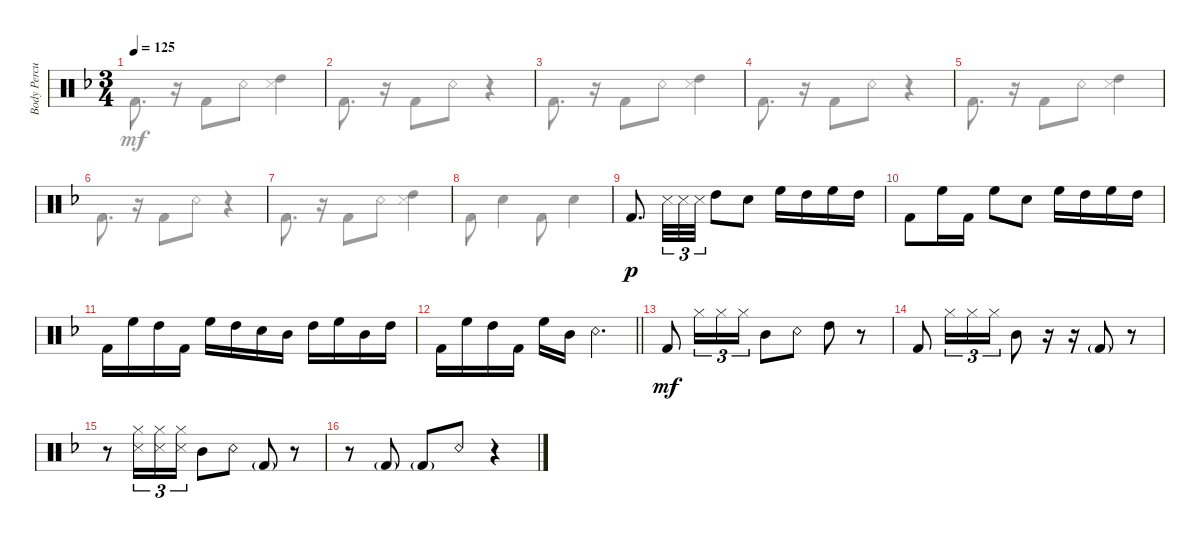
\track ("Body Percussion" "Body Percu") {instrument percussion}
\staff {score}
\articulation defaults
\voice
\ts (3 4)
\tempo 125
\clef neutral
\ks dminor
|
|
|
|
|
|
|
|
"Kick (hit) 2".8{d dy p} "Snare (side stick) 3".32{tu (3 2)} "Snare (side stick) 3".32{tu (3 2)} "Snare (side stick) 3".32{tu (3 2)} "High Tom (hit)".8 "Snare (hit) 2".8 "High Floor Tom (hit)".16 "High Tom (hit)".16 "High Floor Tom (hit)".16 "High Tom (hit)".16 |
"Kick (hit) 2".8 "High Floor Tom (hit)".16 "Kick (hit) 2".16 "High Floor Tom (hit)".8 "Snare (hit) 2".8 "High Floor Tom (hit)".16 "High Tom (hit)".16 "High Floor Tom (hit)".16 "High Tom (hit)".16 |
"Kick (hit) 2".16 "High Floor Tom (hit)".16 "High Tom (hit)".16 "Kick (hit) 2".16 "High Floor Tom (hit)".16 "High Tom (hit)".16 "Snare (hit) 2".16 "Mid Tom (hit)".16 "High Tom (hit)".16 "High Floor Tom (hit)".16 "Mid Tom (hit)".16 "High Tom (hit)".16 |
\barLineRight lightlight "Kick (hit) 2".16 "High Floor Tom (hit)".16 "High Tom (hit)".16 "Kick (hit) 2".16 "High Floor Tom (hit)".16 "Mid Tom (hit)".16 "Snare (rim shot)".4{d}
|
"Kick (hit) 2".8{dy mf} "Hi-Hat (closed)".16{tu (3 2)} "Hi-Hat (closed)".16{tu (3 2)} "Hi-Hat (closed)".16{tu (3 2)} "Mid Tom (hit)".8 "Snare (rim shot)".8 "High Tom (hit)".8 r.8 |
"Kick (hit) 2".8 "Hi-Hat (closed)".16{tu (3 2)} "Hi-Hat (closed)".16{tu (3 2)} "Hi-Hat (closed)".16{tu (3 2)} "Mid Tom (hit)".8 r.16 r.16 "Kick (hit) 2"{g}.8 r.8 |
r.8 ("Hi-Hat (closed)" "Snare (side stick) 3").16{tu (3 2)} ("Hi-Hat (closed)" "Snare (side stick) 3").16{tu (3 2)} ("Hi-Hat (closed)" "Snare (side stick) 3").16{tu (3 2)} "Mid Tom (hit)".8 "Snare (rim shot)".8 "Kick (hit) 2"{g}.8 r.8 |
r.8 "Kick (hit) 2"{g}.8 "Kick (hit) 2"{g}.8 "Snare (rim shot)".8 r.4
\voice
\clef neutral
\ottava regular
\simile none
\ks dminor "Kick (hit) 2".8{d dy mf}
r.16 "Kick (hit) 2".8 "Snare (rim shot)".8 ("High Tom (hit)" "Snare (side stick) 3").4 |
"Kick (hit) 2".8{d} r.16 "Kick (hit) 2".8 "Snare (rim shot)".8 r.4 |
"Kick (hit) 2".8{d} r.16 "Kick (hit) 2".8 "Snare (rim shot)".8 ("High Tom (hit)" "Snare (side stick) 3").4 |
"Kick (hit) 2".8{d} r.16 "Kick (hit) 2".8 "Snare (rim shot)".8 r.4 |
"Kick (hit) 2".8{d} r.16 "Kick (hit) 2".8 "Snare (rim shot)".8 ("High Tom (hit)" "Snare (side stick) 3").4 |
"Kick (hit) 2".8{d} r.16 "Kick (hit) 2".8 "Snare (rim shot)".8 r.4 |
"Kick (hit) 2".8{d} r.16 "Kick (hit) 2".8 "Snare (rim shot)".8 ("High Tom (hit)" "Snare (side stick) 3").4 |
"Kick (hit) 2".8 "Snare (hit) 2".4 "Kick (hit) 2".8 "Snare (hit) 2".4 |
|
|
|
\barLineRight lightlight
|
|
|
|
